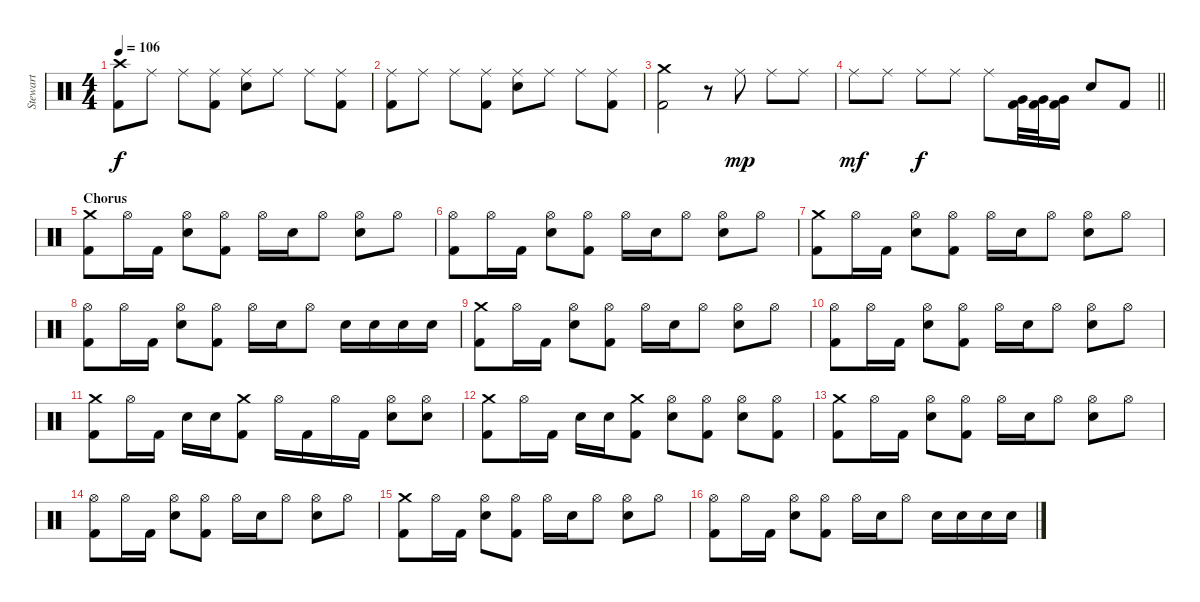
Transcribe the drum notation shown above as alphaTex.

\track ("Stewart" "Stewart") {instrument percussion}
\staff {score}
\articulation defaults
\ts (4 4)
\tempo 106
\clef neutral
\ks c
("Crash high (hit)" "Kick (hit) 2").8{dy f} "Ride (middle)".8 "Ride (middle)".8 ("Ride (middle)" "Kick (hit) 2").8 ("Ride (middle)" "Electric Snare (hit)").8 "Ride (middle)".8 "Ride (middle)".8 ("Ride (middle)" "Kick (hit) 2").8 |
("Ride (middle)" "Kick (hit) 2").8 "Ride (middle)".8 "Ride (middle)".8 ("Ride (middle)" "Kick (hit) 2").8 ("Ride (middle)" "Electric Snare (hit)").8 "Ride (middle)".8 "Ride (middle)".8 ("Ride (middle)" "Kick (hit) 2").8 |
("Crash medium (hit)" "Kick (hit) 2").2 r.8 "Ride (middle)".8{dy mp} "Ride (middle)".8 "Ride (middle)".8 |
\barLineRight lightlight "Ride (middle)".8{dy mf} "Ride (middle)".8 "Ride (middle)".8{dy f} "Ride (middle)".8 "Ride (middle)".8
("Very Low Tom (hit)" "Kick (hit) 2").32 ("Very Low Tom (hit)" "Kick (hit) 2").32 ("Very Low Tom (hit)" "Kick (hit) 2").16 "Electric Snare (hit)".8 "Kick (hit) 2".8 |
\section ("" "Chorus")
("Crash medium (hit)" "Kick (hit) 2").8 "Hi-Hat (open)".16 "Kick (hit) 2".16 ("Hi-Hat (open)" "Electric Snare (hit)").8 ("Hi-Hat (open)" "Kick (hit) 2").8 "Hi-Hat (open)".16 "Electric Snare (hit)".16 "Hi-Hat (open)".8 ("Hi-Hat (open)" "Electric Snare (hit)").8 "Hi-Hat (open)".8 |
("Hi-Hat (open)" "Kick (hit) 2").8 "Hi-Hat (open)".16 "Kick (hit) 2".16 ("Hi-Hat (open)" "Electric Snare (hit)").8 ("Hi-Hat (open)" "Kick (hit) 2").8 "Hi-Hat (open)".16 "Electric Snare (hit)".16 "Hi-Hat (open)".8 ("Hi-Hat (open)" "Electric Snare (hit)").8 "Hi-Hat (open)".8 |
("Crash medium (hit)" "Kick (hit) 2").8 "Hi-Hat (open)".16 "Kick (hit) 2".16 ("Hi-Hat (open)" "Electric Snare (hit)").8 ("Hi-Hat (open)" "Kick (hit) 2").8 "Hi-Hat (open)".16 "Electric Snare (hit)".16 "Hi-Hat (open)".8 ("Hi-Hat (open)" "Electric Snare (hit)").8 "Hi-Hat (open)".8 |
("Hi-Hat (open)" "Kick (hit) 2").8 "Hi-Hat (open)".16 "Kick (hit) 2".16 ("Hi-Hat (open)" "Electric Snare (hit)").8 ("Hi-Hat (open)" "Kick (hit) 2").8 "Hi-Hat (open)".16 "Electric Snare (hit)".16 "Hi-Hat (open)".8 "Electric Snare (hit)".16 "Electric Snare (hit)".16 "Electric Snare (hit)".16 "Electric Snare (hit)".16 |
("Crash medium (hit)" "Kick (hit) 2").8 "Hi-Hat (open)".16 "Kick (hit) 2".16 ("Hi-Hat (open)" "Electric Snare (hit)").8 ("Hi-Hat (open)" "Kick (hit) 2").8 "Hi-Hat (open)".16 "Electric Snare (hit)".16 "Hi-Hat (open)".8 ("Hi-Hat (open)" "Electric Snare (hit)").8 "Hi-Hat (open)".8 |
("Hi-Hat (open)" "Kick (hit) 2").8 "Hi-Hat (open)".16 "Kick (hit) 2".16 ("Hi-Hat (open)" "Electric Snare (hit)").8 ("Hi-Hat (open)" "Kick (hit) 2").8 "Hi-Hat (open)".16 "Electric Snare (hit)".16 "Hi-Hat (open)".8 ("Hi-Hat (open)" "Electric Snare (hit)").8 "Hi-Hat (open)".8 |
("Crash medium (hit)" "Kick (hit) 2").8 "Hi-Hat (open)".16 "Kick (hit) 2".16 "Electric Snare (hit)".16 "Electric Snare (hit)".16 ("Crash medium (hit)" "Kick (hit) 2").8 "Hi-Hat (open)".16 "Kick (hit) 2".16 "Hi-Hat (open)".16 "Kick (hit) 2".16 ("Hi-Hat (open)" "Electric Snare (hit)").8 ("Hi-Hat (open)" "Electric Snare (hit)").8 |
("Crash medium (hit)" "Kick (hit) 2").8 "Hi-Hat (open)".16 "Kick (hit) 2".16 "Electric Snare (hit)".16 "Electric Snare (hit)".16 ("Crash medium (hit)" "Kick (hit) 2").8 ("Hi-Hat (open)" "Electric Snare (hit)").8 ("Hi-Hat (open)" "Kick (hit) 2").8 ("Hi-Hat (open)" "Electric Snare (hit)").8 ("Hi-Hat (open)" "Kick (hit) 2").8 |
("Crash medium (hit)" "Kick (hit) 2").8 "Hi-Hat (open)".16 "Kick (hit) 2".16 ("Hi-Hat (open)" "Electric Snare (hit)").8 ("Hi-Hat (open)" "Kick (hit) 2").8 "Hi-Hat (open)".16 "Electric Snare (hit)".16 "Hi-Hat (open)".8 ("Hi-Hat (open)" "Electric Snare (hit)").8 "Hi-Hat (open)".8 |
("Hi-Hat (open)" "Kick (hit) 2").8 "Hi-Hat (open)".16 "Kick (hit) 2".16 ("Hi-Hat (open)" "Electric Snare (hit)").8 ("Hi-Hat (open)" "Kick (hit) 2").8 "Hi-Hat (open)".16 "Electric Snare (hit)".16 "Hi-Hat (open)".8 ("Hi-Hat (open)" "Electric Snare (hit)").8 "Hi-Hat (open)".8 |
("Crash medium (hit)" "Kick (hit) 2").8 "Hi-Hat (open)".16 "Kick (hit) 2".16 ("Hi-Hat (open)" "Electric Snare (hit)").8 ("Hi-Hat (open)" "Kick (hit) 2").8 "Hi-Hat (open)".16 "Electric Snare (hit)".16 "Hi-Hat (open)".8 ("Hi-Hat (open)" "Electric Snare (hit)").8 "Hi-Hat (open)".8 |
("Hi-Hat (open)" "Kick (hit) 2").8 "Hi-Hat (open)".16 "Kick (hit) 2".16 ("Hi-Hat (open)" "Electric Snare (hit)").8 ("Hi-Hat (open)" "Kick (hit) 2").8 "Hi-Hat (open)".16 "Electric Snare (hit)".16 "Hi-Hat (open)".8 "Electric Snare (hit)".16 "Electric Snare (hit)".16 "Electric Snare (hit)".16 "Electric Snare (hit)".16
